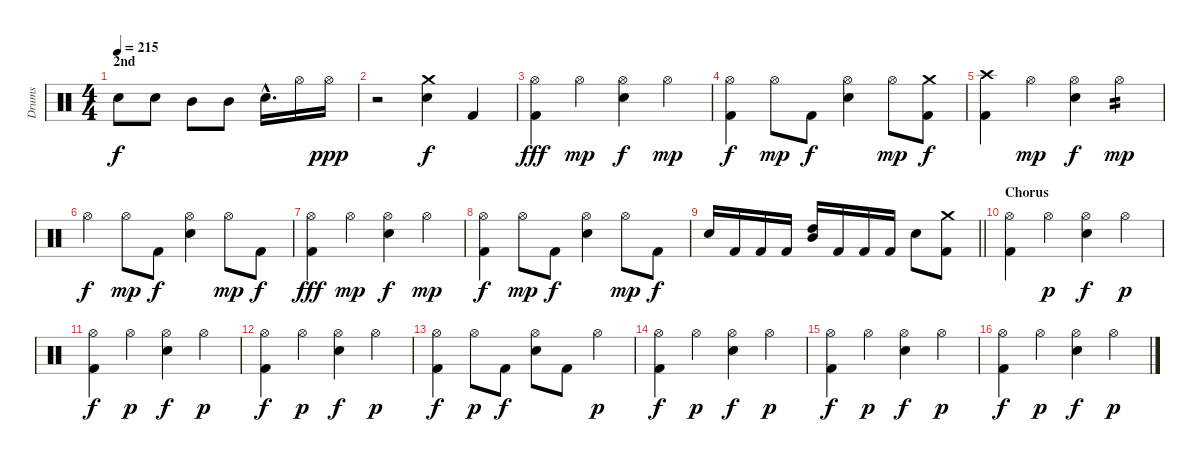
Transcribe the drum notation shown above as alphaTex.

\track ("Drums" "Drums") {instrument percussion}
\staff {score}
\articulation defaults
\ts (4 4)
\section ("" "2nd")
\tempo 215
\clef neutral
\ks c "Snare (hit) 2".8{dy f} "Snare (hit) 2".8 "Mid Tom (hit)".8 "Mid Tom (hit)".8 "Snare (hit) 2"{hac}.16{d} "Hi-Hat (open)".16 "Hi-Hat (open)".16{dy ppp}
|
r.2 ("Crash medium (hit)" "Snare (hit) 2").4{dy f} "Kick (hit) 2".4 |
("Hi-Hat (open)" "Kick (hit) 2").4{dy fff} "Hi-Hat (open)".4{dy mp} ("Hi-Hat (open)" "Snare (hit) 2").4{dy f} "Hi-Hat (open)".4{dy mp} |
("Hi-Hat (open)" "Kick (hit) 2").4{dy f} "Hi-Hat (open)".8{dy mp} "Kick (hit) 2".8{dy f} ("Hi-Hat (open)" "Snare (hit) 2").4 "Hi-Hat (open)".8{dy mp} ("Crash medium (hit)" "Kick (hit) 2").8{dy f} |
("Crash high (hit)" "Kick (hit) 2").4 "Hi-Hat (open)".4{dy mp} ("Hi-Hat (open)" "Snare (hit) 2").4{dy f} "Hi-Hat (open)".4{tp 2 dy mp} |
"Hi-Hat (open)".4{dy f} "Hi-Hat (open)".8{dy mp} "Kick (hit) 2".8{dy f} ("Hi-Hat (open)" "Snare (hit) 2").4 "Hi-Hat (open)".8{dy mp} "Kick (hit) 2".8{dy f} |
("Hi-Hat (open)" "Kick (hit) 2").4{dy fff} "Hi-Hat (open)".4{dy mp} ("Hi-Hat (open)" "Snare (hit) 2").4{dy f} "Hi-Hat (open)".4{dy mp} |
("Hi-Hat (open)" "Kick (hit) 2").4{dy f} "Hi-Hat (open)".8{dy mp} "Kick (hit) 2".8{dy f} ("Hi-Hat (open)" "Snare (hit) 2").4 "Hi-Hat (open)".8{dy mp} "Kick (hit) 2".8{dy f} |
\barLineRight lightlight "Snare (hit) 2".16 "Kick (hit) 2".16 "Kick (hit) 2".16 "Kick (hit) 2".16
("High Tom (hit)" "Mid Tom (hit)").16 "Kick (hit) 2".16 "Kick (hit) 2".16 "Kick (hit) 2".16 "Snare (hit) 2".8 ("Crash medium (hit)" "Kick (hit) 2").8 |
\section ("" "Chorus")
("Hi-Hat (open)" "Kick (hit) 2").4 "Hi-Hat (open)".4{dy p} ("Hi-Hat (open)" "Snare (hit) 2").4{dy f} "Hi-Hat (open)".4{dy p} |
("Hi-Hat (open)" "Kick (hit) 2").4{dy f} "Hi-Hat (open)".4{dy p} ("Hi-Hat (open)" "Snare (hit) 2").4{dy f} "Hi-Hat (open)".4{dy p} |
("Hi-Hat (open)" "Kick (hit) 2").4{dy f} "Hi-Hat (open)".4{dy p} ("Hi-Hat (open)" "Snare (hit) 2").4{dy f} "Hi-Hat (open)".4{dy p} |
("Hi-Hat (open)" "Kick (hit) 2").4{dy f} "Hi-Hat (open)".8{dy p} "Kick (hit) 2".8{dy f} ("Hi-Hat (open)" "Snare (hit) 2").8 "Kick (hit) 2".8 "Hi-Hat (open)".4{dy p} |
("Hi-Hat (open)" "Kick (hit) 2").4{dy f} "Hi-Hat (open)".4{dy p} ("Hi-Hat (open)" "Snare (hit) 2").4{dy f} "Hi-Hat (open)".4{dy p} |
("Hi-Hat (open)" "Kick (hit) 2").4{dy f} "Hi-Hat (open)".4{dy p} ("Hi-Hat (open)" "Snare (hit) 2").4{dy f} "Hi-Hat (open)".4{dy p} |
("Hi-Hat (open)" "Kick (hit) 2").4{dy f} "Hi-Hat (open)".4{dy p} ("Hi-Hat (open)" "Snare (hit) 2").4{dy f} "Hi-Hat (open)".4{dy p}
